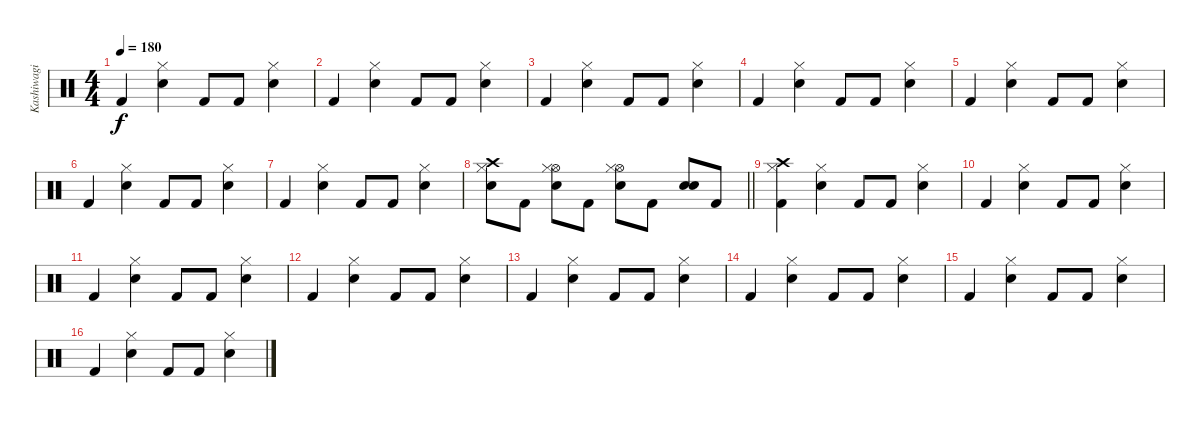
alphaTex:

\track ("Kashiwagi Yuki" "Kashiwagi ") {instrument percussion}
\staff {score}
\articulation defaults
\ts (4 4)
\tempo 180
\clef neutral
\ks c "Kick (hit) 2".4{dy f}
("Hi-Hat (closed)" "Electric Snare (hit)").4 "Kick (hit) 2".8 "Kick (hit) 2".8 ("Hi-Hat (closed)" "Electric Snare (hit)").4 |
"Kick (hit) 2".4 ("Hi-Hat (closed)" "Electric Snare (hit)").4 "Kick (hit) 2".8 "Kick (hit) 2".8 ("Hi-Hat (closed)" "Electric Snare (hit)").4 |
"Kick (hit) 2".4 ("Hi-Hat (closed)" "Electric Snare (hit)").4 "Kick (hit) 2".8 "Kick (hit) 2".8 ("Hi-Hat (closed)" "Electric Snare (hit)").4 |
"Kick (hit) 2".4 ("Hi-Hat (closed)" "Electric Snare (hit)").4 "Kick (hit) 2".8 "Kick (hit) 2".8 ("Hi-Hat (closed)" "Electric Snare (hit)").4 |
"Kick (hit) 2".4 ("Hi-Hat (closed)" "Electric Snare (hit)").4 "Kick (hit) 2".8 "Kick (hit) 2".8 ("Hi-Hat (closed)" "Electric Snare (hit)").4 |
"Kick (hit) 2".4 ("Hi-Hat (closed)" "Electric Snare (hit)").4 "Kick (hit) 2".8 "Kick (hit) 2".8 ("Hi-Hat (closed)" "Electric Snare (hit)").4 |
"Kick (hit) 2".4 ("Hi-Hat (closed)" "Electric Snare (hit)").4 "Kick (hit) 2".8 "Kick (hit) 2".8 ("Hi-Hat (closed)" "Electric Snare (hit)").4 |
\barLineRight lightlight
("Crash high (hit)" "Hi-Hat (closed)" "Electric Snare (hit)").8 "Kick (hit) 2".8 ("Hi-Hat (open)" "Hi-Hat (closed)" "Electric Snare (hit)").8 "Kick (hit) 2".8 ("Hi-Hat (open)" "Hi-Hat (closed)" "Electric Snare (hit)").8 "Kick (hit) 2".8 ("Electric Snare (hit)" "Electric Snare (hit)").8 "Kick (hit) 2".8 |
("Crash high (hit)" "Hi-Hat (closed)" "Kick (hit) 2").4 ("Hi-Hat (closed)" "Electric Snare (hit)").4 "Kick (hit) 2".8 "Kick (hit) 2".8 ("Hi-Hat (closed)" "Electric Snare (hit)").4 |
"Kick (hit) 2".4 ("Hi-Hat (closed)" "Electric Snare (hit)").4 "Kick (hit) 2".8 "Kick (hit) 2".8 ("Hi-Hat (closed)" "Electric Snare (hit)").4 |
"Kick (hit) 2".4 ("Hi-Hat (closed)" "Electric Snare (hit)").4 "Kick (hit) 2".8 "Kick (hit) 2".8 ("Hi-Hat (closed)" "Electric Snare (hit)").4 |
"Kick (hit) 2".4 ("Hi-Hat (closed)" "Electric Snare (hit)").4 "Kick (hit) 2".8 "Kick (hit) 2".8 ("Hi-Hat (closed)" "Electric Snare (hit)").4 |
"Kick (hit) 2".4 ("Hi-Hat (closed)" "Electric Snare (hit)").4 "Kick (hit) 2".8 "Kick (hit) 2".8 ("Hi-Hat (closed)" "Electric Snare (hit)").4 |
"Kick (hit) 2".4 ("Hi-Hat (closed)" "Electric Snare (hit)").4 "Kick (hit) 2".8 "Kick (hit) 2".8 ("Hi-Hat (closed)" "Electric Snare (hit)").4 |
"Kick (hit) 2".4 ("Hi-Hat (closed)" "Electric Snare (hit)").4 "Kick (hit) 2".8 "Kick (hit) 2".8 ("Hi-Hat (closed)" "Electric Snare (hit)").4 |
"Kick (hit) 2".4 ("Hi-Hat (closed)" "Electric Snare (hit)").4 "Kick (hit) 2".8 "Kick (hit) 2".8 ("Hi-Hat (closed)" "Electric Snare (hit)").4
